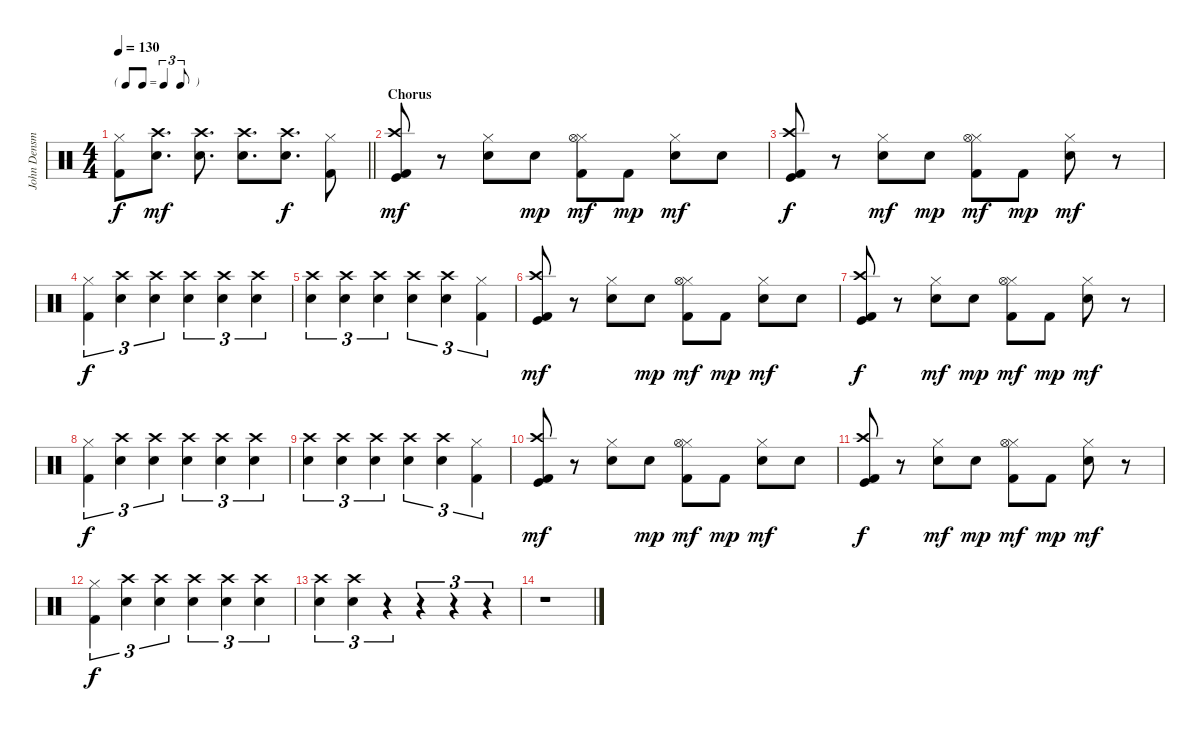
\track ("John Densmore" "John Densm") {instrument percussion}
\staff {score}
\articulation defaults
\ts (4 4)
\tf triplet8th
\tempo 130
\clef neutral
\barLineRight lightlight
\ks c
("Kick (hit) 2" "Hi-Hat (closed)").8{dy f} ("Electric Snare (hit)" "Crash high (hit)").8{d dy mf} ("Electric Snare (hit)" "Crash high (hit)").8{d} ("Electric Snare (hit)" "Crash high (hit)").8{d} ("Electric Snare (hit)" "Crash high (hit)").8{d dy f} ("Kick (hit) 2" "Hi-Hat (closed)").8 |
\section ("" "Chorus")
("Kick (hit) 2" "Kick (hit)" "Crash high (hit)").8{dy mf} r.8 ("Electric Snare (hit)" "Hi-Hat (closed)").8 "Electric Snare (hit)".8{dy mp} ("Kick (hit) 2" "Hi-Hat (closed)" "Hi-Hat (open)").8{dy mf} "Kick (hit) 2".8{dy mp} ("Electric Snare (hit)" "Hi-Hat (closed)").8{dy mf} "Electric Snare (hit)".8 |
("Kick (hit) 2" "Kick (hit)" "Crash high (hit)").8{dy f} r.8 ("Electric Snare (hit)" "Hi-Hat (closed)").8{dy mf} "Electric Snare (hit)".8{dy mp} ("Kick (hit) 2" "Hi-Hat (closed)" "Hi-Hat (open)").8{dy mf} "Kick (hit) 2".8{dy mp} ("Electric Snare (hit)" "Hi-Hat (closed)").8{dy mf} r.8 |
("Kick (hit) 2" "Hi-Hat (closed)").4{tu (3 2) dy f} ("Electric Snare (hit)" "Crash high (hit)").4{tu (3 2)} ("Electric Snare (hit)" "Crash high (hit)").4{tu (3 2)} ("Electric Snare (hit)" "Crash high (hit)").4{tu (3 2)} ("Electric Snare (hit)" "Crash high (hit)").4{tu (3 2)} ("Electric Snare (hit)" "Crash high (hit)").4{tu (3 2)} |
("Electric Snare (hit)" "Crash high (hit)").4{tu (3 2)} ("Electric Snare (hit)" "Crash high (hit)").4{tu (3 2)} ("Electric Snare (hit)" "Crash high (hit)").4{tu (3 2)} ("Electric Snare (hit)" "Crash high (hit)").4{tu (3 2)} ("Electric Snare (hit)" "Crash high (hit)").4{tu (3 2)} ("Kick (hit) 2" "Hi-Hat (closed)").4{tu (3 2)} |
("Kick (hit) 2" "Kick (hit)" "Crash high (hit)").8{dy mf} r.8 ("Electric Snare (hit)" "Hi-Hat (closed)").8 "Electric Snare (hit)".8{dy mp} ("Kick (hit) 2" "Hi-Hat (closed)" "Hi-Hat (open)").8{dy mf} "Kick (hit) 2".8{dy mp} ("Electric Snare (hit)" "Hi-Hat (closed)").8{dy mf} "Electric Snare (hit)".8 |
("Kick (hit) 2" "Kick (hit)" "Crash high (hit)").8{dy f} r.8 ("Electric Snare (hit)" "Hi-Hat (closed)").8{dy mf} "Electric Snare (hit)".8{dy mp} ("Kick (hit) 2" "Hi-Hat (closed)" "Hi-Hat (open)").8{dy mf} "Kick (hit) 2".8{dy mp} ("Electric Snare (hit)" "Hi-Hat (closed)").8{dy mf} r.8 |
("Kick (hit) 2" "Hi-Hat (closed)").4{tu (3 2) dy f} ("Electric Snare (hit)" "Crash high (hit)").4{tu (3 2)} ("Electric Snare (hit)" "Crash high (hit)").4{tu (3 2)} ("Electric Snare (hit)" "Crash high (hit)").4{tu (3 2)} ("Electric Snare (hit)" "Crash high (hit)").4{tu (3 2)} ("Electric Snare (hit)" "Crash high (hit)").4{tu (3 2)} |
("Electric Snare (hit)" "Crash high (hit)").4{tu (3 2)} ("Electric Snare (hit)" "Crash high (hit)").4{tu (3 2)} ("Electric Snare (hit)" "Crash high (hit)").4{tu (3 2)} ("Electric Snare (hit)" "Crash high (hit)").4{tu (3 2)} ("Electric Snare (hit)" "Crash high (hit)").4{tu (3 2)} ("Kick (hit) 2" "Hi-Hat (closed)").4{tu (3 2)} |
("Kick (hit) 2" "Kick (hit)" "Crash high (hit)").8{dy mf} r.8 ("Electric Snare (hit)" "Hi-Hat (closed)").8 "Electric Snare (hit)".8{dy mp} ("Kick (hit) 2" "Hi-Hat (closed)" "Hi-Hat (open)").8{dy mf} "Kick (hit) 2".8{dy mp} ("Electric Snare (hit)" "Hi-Hat (closed)").8{dy mf} "Electric Snare (hit)".8 |
("Kick (hit) 2" "Kick (hit)" "Crash high (hit)").8{dy f} r.8 ("Electric Snare (hit)" "Hi-Hat (closed)").8{dy mf} "Electric Snare (hit)".8{dy mp} ("Kick (hit) 2" "Hi-Hat (closed)" "Hi-Hat (open)").8{dy mf} "Kick (hit) 2".8{dy mp} ("Electric Snare (hit)" "Hi-Hat (closed)").8{dy mf} r.8 |
("Kick (hit) 2" "Hi-Hat (closed)").4{tu (3 2) dy f} ("Electric Snare (hit)" "Crash high (hit)").4{tu (3 2)} ("Electric Snare (hit)" "Crash high (hit)").4{tu (3 2)} ("Electric Snare (hit)" "Crash high (hit)").4{tu (3 2)} ("Electric Snare (hit)" "Crash high (hit)").4{tu (3 2)} ("Electric Snare (hit)" "Crash high (hit)").4{tu (3 2)} |
("Electric Snare (hit)" "Crash high (hit)").4{tu (3 2)} ("Electric Snare (hit)" "Crash high (hit)").4{tu (3 2)} r.4{tu (3 2)} r.4{tu (3 2)} r.4{tu (3 2)} r.4{tu (3 2)} |
r.1
